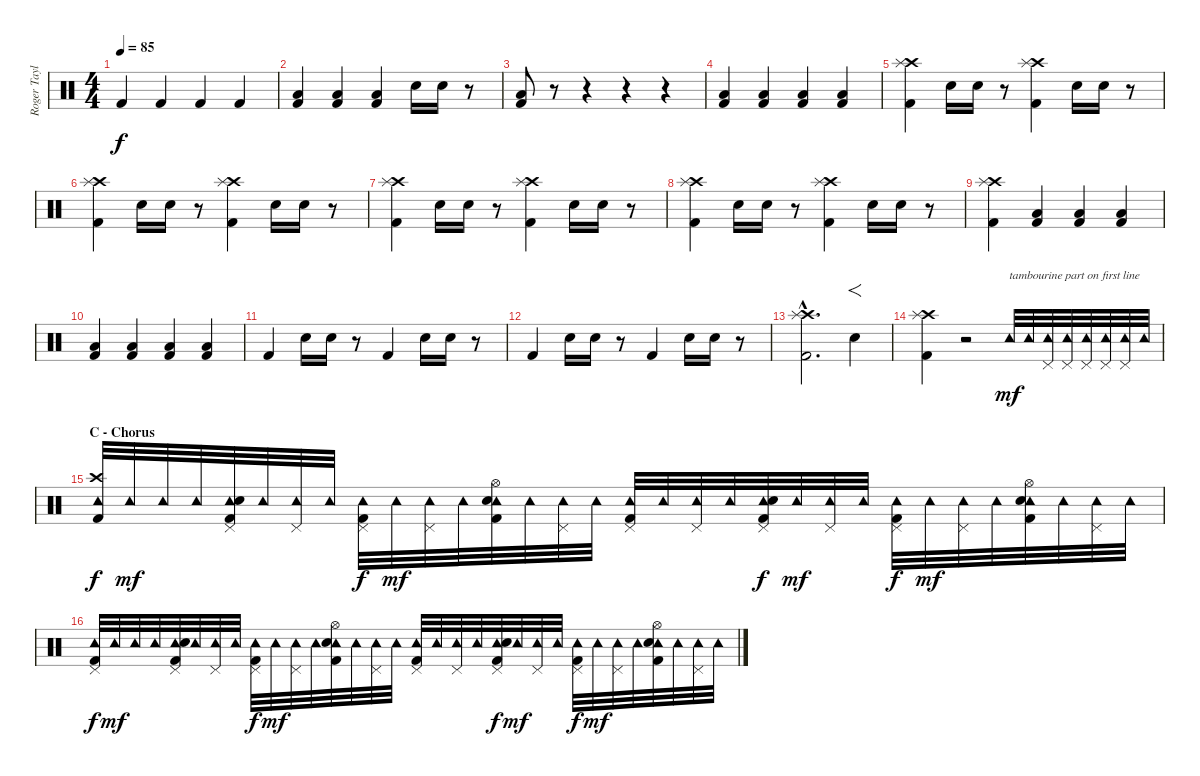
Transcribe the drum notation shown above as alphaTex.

\track ("Roger Taylor - Drums" "Roger Tayl") {instrument percussion}
\staff {score}
\articulation defaults
\ts (4 4)
\tempo 85
\clef neutral
\ks c "Kick (hit) 2".4{dy f} "Kick (hit) 2".4 "Kick (hit) 2".4 "Kick (hit) 2".4
|
("Low Floor Tom (hit)" "Kick (hit) 2").4 ("Low Floor Tom (hit)" "Kick (hit) 2").4 ("Low Floor Tom (hit)" "Kick (hit) 2").4 "Electric Snare (hit)".16 "Electric Snare (hit)".16 r.8 |
("Low Floor Tom (hit)" "Kick (hit) 2").8 r.8 r.4 r.4 r.4 |
("Low Floor Tom (hit)" "Kick (hit) 2").4 ("Low Floor Tom (hit)" "Kick (hit) 2").4 ("Low Floor Tom (hit)" "Kick (hit) 2").4 ("Low Floor Tom (hit)" "Kick (hit) 2").4 |
("Crash high (hit)" "Splash (hit)" "Kick (hit) 2").4 "Electric Snare (hit)".16 "Electric Snare (hit)".16 r.8 ("Crash high (hit)" "Splash (hit)" "Kick (hit) 2").4 "Electric Snare (hit)".16 "Electric Snare (hit)".16 r.8 |
("Crash high (hit)" "Splash (hit)" "Kick (hit) 2").4 "Electric Snare (hit)".16 "Electric Snare (hit)".16 r.8 ("Crash high (hit)" "Splash (hit)" "Kick (hit) 2").4 "Electric Snare (hit)".16 "Electric Snare (hit)".16 r.8 |
("Crash high (hit)" "Splash (hit)" "Kick (hit) 2").4 "Electric Snare (hit)".16 "Electric Snare (hit)".16 r.8 ("Crash high (hit)" "Splash (hit)" "Kick (hit) 2").4 "Electric Snare (hit)".16 "Electric Snare (hit)".16 r.8 |
("Crash high (hit)" "Splash (hit)" "Kick (hit) 2").4 "Electric Snare (hit)".16 "Electric Snare (hit)".16 r.8 ("Crash high (hit)" "Splash (hit)" "Kick (hit) 2").4 "Electric Snare (hit)".16 "Electric Snare (hit)".16 r.8 |
("Crash high (hit)" "Splash (hit)" "Kick (hit) 2").4 ("Low Floor Tom (hit)" "Kick (hit) 2").4 ("Low Floor Tom (hit)" "Kick (hit) 2").4 ("Low Floor Tom (hit)" "Kick (hit) 2").4 |
("Low Floor Tom (hit)" "Kick (hit) 2").4 ("Low Floor Tom (hit)" "Kick (hit) 2").4 ("Low Floor Tom (hit)" "Kick (hit) 2").4 ("Low Floor Tom (hit)" "Kick (hit) 2").4 |
"Kick (hit) 2".4 "Electric Snare (hit)".16 "Electric Snare (hit)".16 r.8 "Kick (hit) 2".4 "Electric Snare (hit)".16 "Electric Snare (hit)".16 r.8 |
"Kick (hit) 2".4 "Electric Snare (hit)".16 "Electric Snare (hit)".16 r.8 "Kick (hit) 2".4 "Electric Snare (hit)".16 "Electric Snare (hit)".16 r.8 |
("Crash high (hit)"{hac} "Splash (hit)"{hac} "Kick (hit) 2"{hac}).2{d} "Electric Snare (hit)"{tr (40 64)}.4{f} |
("Crash high (hit)" "Splash (hit)" "Kick (hit) 2").4 r.2 "Tambourine (hit)".32{txt "tambourine part on first line" dy mf} "Tambourine (hit)".32 ("Tambourine (hit)" "Pedal Hi-Hat (hit)").32 ("Tambourine (hit)" "Pedal Hi-Hat (hit)").32 ("Tambourine (hit)" "Pedal Hi-Hat (hit)").32 ("Tambourine (hit)" "Pedal Hi-Hat (hit)").32 ("Tambourine (hit)" "Pedal Hi-Hat (hit)").32 "Tambourine (hit)".32 |
\section ("" "C - Chorus")
("Tambourine (hit)" "Crash high (hit)" "Kick (hit) 2").32{dy f} "Tambourine (hit)".32{dy mf} "Tambourine (hit)".32 "Tambourine (hit)".32 ("Tambourine (hit)" "Pedal Hi-Hat (hit)" "Electric Snare (hit)" "Kick (hit) 2").32 "Tambourine (hit)".32 ("Tambourine (hit)" "Pedal Hi-Hat (hit)").32 "Tambourine (hit)".32 ("Tambourine (hit)" "Pedal Hi-Hat (hit)" "Kick (hit) 2").32{dy f} "Tambourine (hit)".32{dy mf} ("Tambourine (hit)" "Pedal Hi-Hat (hit)").32 "Tambourine (hit)".32 ("Tambourine (hit)" "Electric Snare (hit)" "Hi-Hat (open)" "Kick (hit) 2").32 "Tambourine (hit)".32 ("Tambourine (hit)" "Pedal Hi-Hat (hit)").32 "Tambourine (hit)".32 ("Tambourine (hit)" "Pedal Hi-Hat (hit)" "Kick (hit) 2").32 "Tambourine (hit)".32 ("Tambourine (hit)" "Pedal Hi-Hat (hit)").32 "Tambourine (hit)".32 ("Tambourine (hit)" "Pedal Hi-Hat (hit)" "Electric Snare (hit)" "Kick (hit) 2").32{dy f} "Tambourine (hit)".32{dy mf} ("Tambourine (hit)" "Pedal Hi-Hat (hit)").32 "Tambourine (hit)".32 ("Tambourine (hit)" "Pedal Hi-Hat (hit)" "Kick (hit) 2").32{dy f} "Tambourine (hit)".32{dy mf} ("Tambourine (hit)" "Pedal Hi-Hat (hit)").32 "Tambourine (hit)".32 ("Tambourine (hit)" "Hi-Hat (open)" "Electric Snare (hit)" "Kick (hit) 2").32 "Tambourine (hit)".32 ("Tambourine (hit)" "Pedal Hi-Hat (hit)").32 "Tambourine (hit)".32 |
("Tambourine (hit)" "Pedal Hi-Hat (hit)" "Kick (hit) 2").32{dy f} "Tambourine (hit)".32{dy mf} "Tambourine (hit)".32 "Tambourine (hit)".32 ("Tambourine (hit)" "Pedal Hi-Hat (hit)" "Electric Snare (hit)" "Kick (hit) 2").32 "Tambourine (hit)".32 ("Tambourine (hit)" "Pedal Hi-Hat (hit)").32 "Tambourine (hit)".32 ("Tambourine (hit)" "Pedal Hi-Hat (hit)" "Kick (hit) 2").32{dy f} "Tambourine (hit)".32{dy mf} ("Tambourine (hit)" "Pedal Hi-Hat (hit)").32 "Tambourine (hit)".32 ("Tambourine (hit)" "Electric Snare (hit)" "Hi-Hat (open)" "Kick (hit) 2").32 "Tambourine (hit)".32 ("Tambourine (hit)" "Pedal Hi-Hat (hit)").32 "Tambourine (hit)".32 ("Tambourine (hit)" "Pedal Hi-Hat (hit)" "Kick (hit) 2").32 "Tambourine (hit)".32 ("Tambourine (hit)" "Pedal Hi-Hat (hit)").32 "Tambourine (hit)".32 ("Tambourine (hit)" "Pedal Hi-Hat (hit)" "Electric Snare (hit)" "Kick (hit) 2").32{dy f} "Tambourine (hit)".32{dy mf} ("Tambourine (hit)" "Pedal Hi-Hat (hit)").32 "Tambourine (hit)".32 ("Tambourine (hit)" "Pedal Hi-Hat (hit)" "Kick (hit) 2").32{dy f} "Tambourine (hit)".32{dy mf} ("Tambourine (hit)" "Pedal Hi-Hat (hit)").32 "Tambourine (hit)".32 ("Tambourine (hit)" "Hi-Hat (open)" "Electric Snare (hit)" "Kick (hit) 2").32 "Tambourine (hit)".32 ("Tambourine (hit)" "Pedal Hi-Hat (hit)").32 "Tambourine (hit)".32
